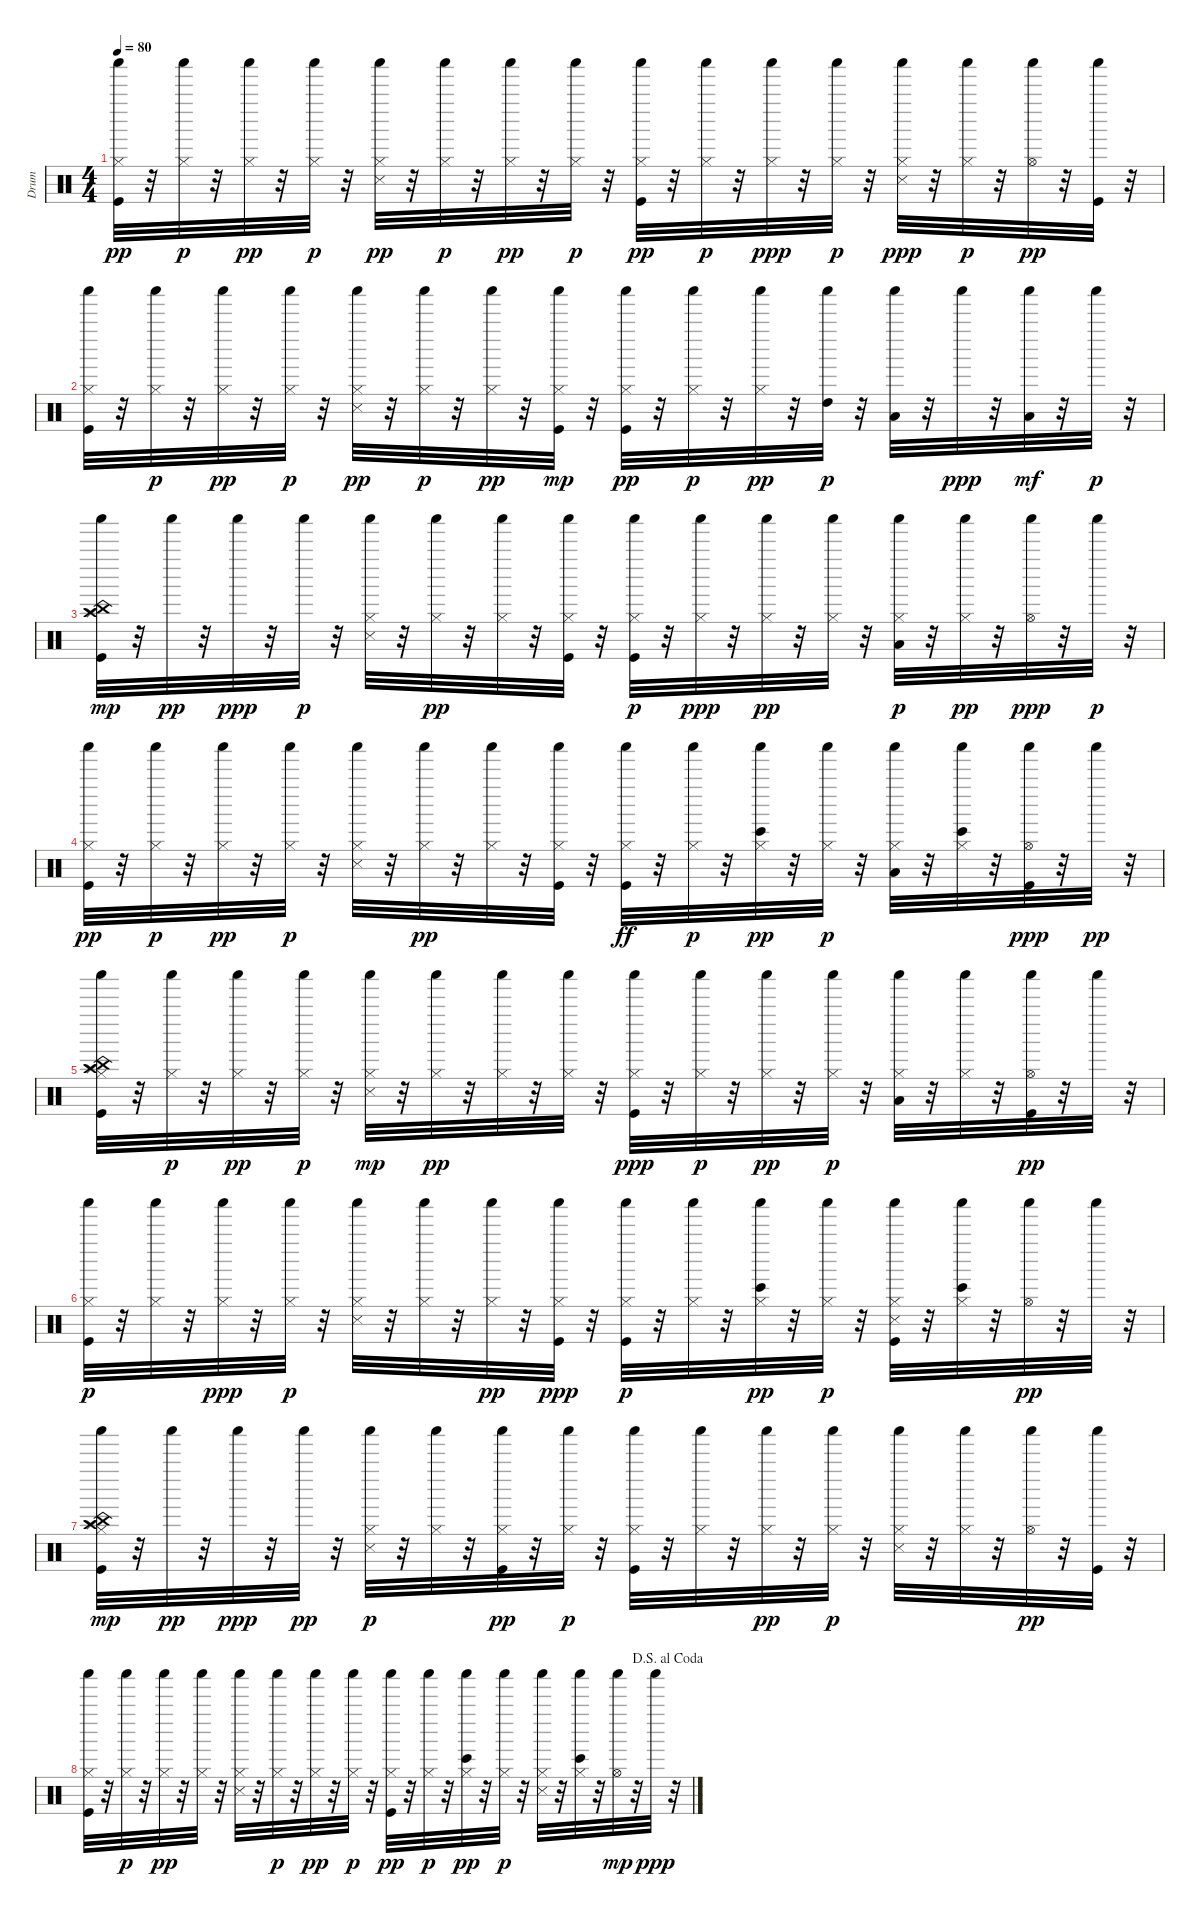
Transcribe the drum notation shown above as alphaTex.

\track ("Drum" "Drum") {instrument percussion}
\staff {score}
\articulation defaults
\ts (4 4)
\tempo 80
\clef neutral
\ks c
("Shaker (hit)" "Kick (hit)" "Hi-Hat (closed)").32{dy pp} r.32 ("Shaker (hit)" "Hi-Hat (closed)").32{dy p} r.32 ("Hi-Hat (closed)" "Shaker (hit)").32{dy pp} r.32 ("Shaker (hit)" "Hi-Hat (closed)").32{dy p} r.32 ("Snare (side stick) 3" "Shaker (hit)" "Hi-Hat (closed)").32{dy pp} r.32 ("Shaker (hit)" "Hi-Hat (closed)").32{dy p} r.32 ("Shaker (hit)" "Hi-Hat (closed)").32{dy pp} r.32 ("Shaker (hit)" "Hi-Hat (closed)").32{dy p} r.32 ("Kick (hit)" "Shaker (hit)" "Hi-Hat (closed)").32{dy pp} r.32 ("Shaker (hit)" "Hi-Hat (closed)").32{dy p} r.32 ("Shaker (hit)" "Hi-Hat (closed)").32{dy ppp} r.32 ("Shaker (hit)" "Hi-Hat (closed)").32{dy p} r.32 ("Snare (side stick) 3" "Shaker (hit)" "Hi-Hat (closed)").32{dy ppp} r.32 ("Shaker (hit)" "Hi-Hat (closed)").32{dy p} r.32 ("Hi-Hat (open)" "Shaker (hit)").32{dy pp} r.32 ("Kick (hit)" "Shaker (hit)").32 r.32 |
("Kick (hit)" "Shaker (hit)" "Hi-Hat (closed)").32 r.32 ("Shaker (hit)" "Hi-Hat (closed)").32{dy p} r.32 ("Shaker (hit)" "Hi-Hat (closed)").32{dy pp} r.32 ("Shaker (hit)" "Hi-Hat (closed)").32{dy p} r.32 ("Snare (side stick) 3" "Shaker (hit)" "Hi-Hat (closed)").32{dy pp} r.32 ("Shaker (hit)" "Hi-Hat (closed)").32{dy p} r.32 ("Hi-Hat (closed)" "Shaker (hit)").32{dy pp} r.32 ("Shaker (hit)" "Hi-Hat (closed)" "Kick (hit)").32{dy mp} r.32 ("Kick (hit)" "Shaker (hit)" "Hi-Hat (closed)").32{dy pp} r.32 ("Shaker (hit)" "Hi-Hat (closed)").32{dy p} r.32 ("Shaker (hit)" "Hi-Hat (closed)").32{dy pp} r.32 ("Shaker (hit)" "High Tom (hit)").32{dy p} r.32 ("Shaker (hit)" "Low Tom (hit)").32 r.32 "Shaker (hit)".32{dy ppp} r.32 ("Shaker (hit)" "Low Floor Tom (hit)").32{dy mf} r.32 "Shaker (hit)".32{dy p} r.32 |
("Splash (hit)" "Crash high (hit)" "China (hit)" "Kick (hit)" "Shaker (hit)").32{dy mp} r.32 "Shaker (hit)".32{dy pp} r.32 "Shaker (hit)".32{dy ppp} r.32 "Shaker (hit)".32{dy p} r.32 ("Shaker (hit)" "Snare (side stick) 3" "Hi-Hat (closed)").32 r.32 ("Shaker (hit)" "Hi-Hat (closed)").32{dy pp} r.32 ("Hi-Hat (closed)" "Shaker (hit)").32 r.32 ("Kick (hit)" "Shaker (hit)" "Hi-Hat (closed)").32 r.32 ("Shaker (hit)" "Kick (hit)" "Hi-Hat (closed)").32{dy p} r.32 ("Shaker (hit)" "Hi-Hat (closed)").32{dy ppp} r.32 ("Hi-Hat (closed)" "Shaker (hit)").32{dy pp} r.32 ("Shaker (hit)" "Hi-Hat (closed)").32 r.32 ("Shaker (hit)" "Low Floor Tom (hit)" "Hi-Hat (closed)").32{dy p} r.32 ("Shaker (hit)" "Hi-Hat (closed)").32{dy pp} r.32 ("Hi-Hat (open)" "Shaker (hit)").32{dy ppp} r.32 "Shaker (hit)".32{dy p} r.32 |
("Kick (hit)" "Shaker (hit)" "Hi-Hat (closed)").32{dy pp} r.32 ("Shaker (hit)" "Hi-Hat (closed)").32{dy p} r.32 ("Shaker (hit)" "Hi-Hat (closed)").32{dy pp} r.32 ("Shaker (hit)" "Hi-Hat (closed)").32{dy p} r.32 ("Snare (side stick) 3" "Shaker (hit)" "Hi-Hat (closed)").32 r.32 ("Shaker (hit)" "Hi-Hat (closed)").32{dy pp} r.32 ("Hi-Hat (closed)" "Shaker (hit)").32 r.32 ("Shaker (hit)" "Kick (hit)" "Hi-Hat (closed)").32 r.32 ("Shaker (hit)" "Hi-Hat (closed)" "Kick (hit)").32{dy ff} r.32 ("Shaker (hit)" "Hi-Hat (closed)").32{dy p} r.32 ("Bongo High (hit)" "Shaker (hit)" "Hi-Hat (closed)").32{dy pp} r.32 ("Shaker (hit)" "Hi-Hat (closed)").32{dy p} r.32 ("Low Floor Tom (hit)" "Shaker (hit)" "Hi-Hat (closed)").32 r.32 ("Bongo High (hit)" "Shaker (hit)" "Hi-Hat (closed)").32 r.32 ("Hi-Hat (open)" "Kick (hit)" "Shaker (hit)").32{dy ppp} r.32 "Shaker (hit)".32{dy pp} r.32 |
("Splash (hit)" "Crash high (hit)" "China (hit)" "Shaker (hit)" "Kick (hit)" "Hi-Hat (closed)").32 r.32 ("Shaker (hit)" "Hi-Hat (closed)").32{dy p} r.32 ("Hi-Hat (closed)" "Shaker (hit)").32{dy pp} r.32 ("Shaker (hit)" "Hi-Hat (closed)").32{dy p} r.32 ("Snare (side stick) 3" "Hi-Hat (closed)" "Shaker (hit)").32{dy mp} r.32 ("Hi-Hat (closed)" "Shaker (hit)").32{dy pp} r.32 ("Hi-Hat (closed)" "Shaker (hit)").32 r.32 ("Hi-Hat (closed)" "Shaker (hit)").32 r.32 ("Kick (hit)" "Shaker (hit)" "Hi-Hat (closed)").32{dy ppp} r.32 ("Shaker (hit)" "Hi-Hat (closed)").32{dy p} r.32 ("Shaker (hit)" "Hi-Hat (closed)").32{dy pp} r.32 ("Shaker (hit)" "Hi-Hat (closed)").32{dy p} r.32 ("Low Floor Tom (hit)" "Shaker (hit)" "Hi-Hat (closed)").32 r.32 ("Shaker (hit)" "Hi-Hat (closed)").32 r.32 ("Hi-Hat (open)" "Kick (hit)" "Shaker (hit)").32{dy pp} r.32 "Shaker (hit)".32 r.32 |
("Kick (hit)" "Shaker (hit)" "Hi-Hat (closed)").32{dy p} r.32 ("Shaker (hit)" "Hi-Hat (closed)").32 r.32 ("Shaker (hit)" "Hi-Hat (closed)").32{dy ppp} r.32 ("Shaker (hit)" "Hi-Hat (closed)").32{dy p} r.32 ("Snare (side stick) 3" "Shaker (hit)" "Hi-Hat (closed)").32 r.32 ("Shaker (hit)" "Hi-Hat (closed)").32 r.32 ("Shaker (hit)" "Hi-Hat (closed)").32{dy pp} r.32 ("Kick (hit)" "Hi-Hat (closed)" "Shaker (hit)").32{dy ppp} r.32 ("Kick (hit)" "Shaker (hit)" "Hi-Hat (closed)").32{dy p} r.32 ("Shaker (hit)" "Hi-Hat (closed)").32 r.32 ("Bongo High (hit)" "Shaker (hit)" "Hi-Hat (closed)").32{dy pp} r.32 ("Shaker (hit)" "Hi-Hat (closed)").32{dy p} r.32 ("Kick (hit)" "Snare (side stick) 3" "Shaker (hit)" "Hi-Hat (closed)").32 r.32 ("Bongo High (hit)" "Shaker (hit)" "Hi-Hat (closed)").32 r.32 ("Hi-Hat (open)" "Shaker (hit)").32{dy pp} r.32 "Shaker (hit)".32 r.32 |
("Shaker (hit)" "Kick (hit)" "Hi-Hat (closed)" "Splash (hit)" "Crash high (hit)" "China (hit)").32{dy mp} r.32 "Shaker (hit)".32{dy pp} r.32 "Shaker (hit)".32{dy ppp} r.32 "Shaker (hit)".32{dy pp} r.32 ("Snare (side stick) 3" "Shaker (hit)" "Hi-Hat (closed)").32{dy p} r.32 ("Shaker (hit)" "Hi-Hat (closed)").32 r.32 ("Kick (hit)" "Shaker (hit)" "Hi-Hat (closed)").32{dy pp} r.32 ("Shaker (hit)" "Hi-Hat (closed)").32{dy p} r.32 ("Kick (hit)" "Shaker (hit)" "Hi-Hat (closed)").32 r.32 ("Shaker (hit)" "Hi-Hat (closed)").32 r.32 ("Shaker (hit)" "Hi-Hat (closed)").32{dy pp} r.32 ("Shaker (hit)" "Hi-Hat (closed)").32{dy p} r.32 ("Snare (side stick) 3" "Shaker (hit)" "Hi-Hat (closed)").32 r.32 ("Shaker (hit)" "Hi-Hat (closed)").32 r.32 ("Hi-Hat (open)" "Shaker (hit)").32{dy pp} r.32 ("Kick (hit)" "Shaker (hit)").32 r.32 |
\jump dalsegnoalcoda
("Kick (hit)" "Shaker (hit)" "Hi-Hat (closed)").32 r.32 ("Shaker (hit)" "Hi-Hat (closed)").32{dy p} r.32 ("Shaker (hit)" "Hi-Hat (closed)").32{dy pp} r.32 ("Shaker (hit)" "Hi-Hat (closed)").32 r.32 ("Snare (side stick) 3" "Shaker (hit)" "Hi-Hat (closed)").32 r.32 ("Shaker (hit)" "Hi-Hat (closed)").32{dy p} r.32 ("Shaker (hit)" "Hi-Hat (closed)").32{dy pp} r.32 ("Shaker (hit)" "Hi-Hat (closed)").32{dy p} r.32 ("Kick (hit)" "Shaker (hit)" "Hi-Hat (closed)").32{dy pp} r.32 ("Shaker (hit)" "Hi-Hat (closed)").32{dy p} r.32 ("Bongo High (hit)" "Shaker (hit)" "Hi-Hat (closed)").32{dy pp} r.32 ("Shaker (hit)" "Hi-Hat (closed)").32{dy p} r.32 ("Snare (side stick) 3" "Hi-Hat (closed)" "Shaker (hit)").32 r.32 ("Bongo High (hit)" "Shaker (hit)" "Hi-Hat (closed)").32 r.32 ("Shaker (hit)" "Hi-Hat (open)").32{dy mp} r.32 "Shaker (hit)".32{dy ppp} r.32
